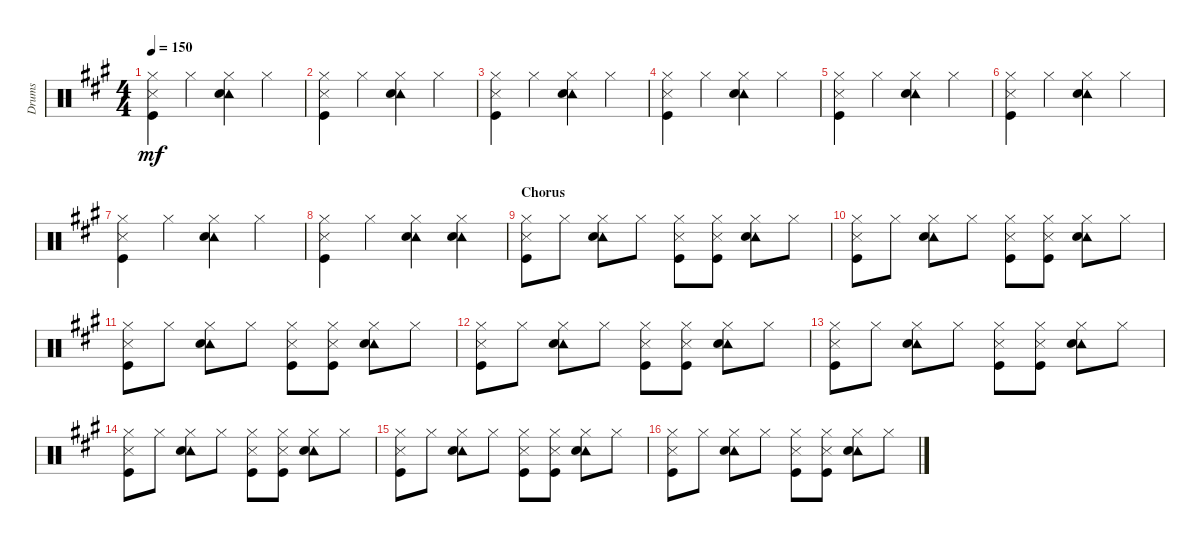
\track ("Drums" "Drums") {instrument percussion}
\staff {score}
\articulation defaults
\ts (4 4)
\tempo 150
\clef neutral
\ks a
("Hi-Hat (closed)" "Metronome (hit)" "Kick (hit)").4{dy mf} "Hi-Hat (closed)".4 ("Tambourine (hit)" "Hi-Hat (closed)" "Electric Snare (hit)").4 "Hi-Hat (closed)".4 |
("Hi-Hat (closed)" "Metronome (hit)" "Kick (hit)").4 "Hi-Hat (closed)".4 ("Tambourine (hit)" "Hi-Hat (closed)" "Electric Snare (hit)").4 "Hi-Hat (closed)".4 |
("Hi-Hat (closed)" "Metronome (hit)" "Kick (hit)").4 "Hi-Hat (closed)".4 ("Tambourine (hit)" "Hi-Hat (closed)" "Electric Snare (hit)").4 "Hi-Hat (closed)".4 |
("Hi-Hat (closed)" "Metronome (hit)" "Kick (hit)").4 "Hi-Hat (closed)".4 ("Tambourine (hit)" "Hi-Hat (closed)" "Electric Snare (hit)").4 "Hi-Hat (closed)".4 |
("Hi-Hat (closed)" "Metronome (hit)" "Kick (hit)").4 "Hi-Hat (closed)".4 ("Tambourine (hit)" "Hi-Hat (closed)" "Electric Snare (hit)").4 "Hi-Hat (closed)".4 |
("Hi-Hat (closed)" "Metronome (hit)" "Kick (hit)").4 "Hi-Hat (closed)".4 ("Tambourine (hit)" "Hi-Hat (closed)" "Electric Snare (hit)").4 "Hi-Hat (closed)".4 |
("Hi-Hat (closed)" "Metronome (hit)" "Kick (hit)").4 "Hi-Hat (closed)".4 ("Tambourine (hit)" "Hi-Hat (closed)" "Electric Snare (hit)").4 "Hi-Hat (closed)".4 |
("Hi-Hat (closed)" "Metronome (hit)" "Kick (hit)").4 "Hi-Hat (closed)".4 ("Tambourine (hit)" "Hi-Hat (closed)" "Electric Snare (hit)").4 ("Tambourine (hit)" "Hi-Hat (closed)" "Electric Snare (hit)").4 |
\section ("" "Chorus")
("Hi-Hat (closed)" "Metronome (hit)" "Kick (hit)").8 "Hi-Hat (closed)".8 ("Tambourine (hit)" "Hi-Hat (closed)" "Electric Snare (hit)").8 "Hi-Hat (closed)".8 ("Hi-Hat (closed)" "Metronome (hit)" "Kick (hit)").8 ("Hi-Hat (closed)" "Metronome (hit)" "Kick (hit)").8 ("Tambourine (hit)" "Hi-Hat (closed)" "Electric Snare (hit)").8 "Hi-Hat (closed)".8 |
("Hi-Hat (closed)" "Metronome (hit)" "Kick (hit)").8 "Hi-Hat (closed)".8 ("Tambourine (hit)" "Hi-Hat (closed)" "Electric Snare (hit)").8 "Hi-Hat (closed)".8 ("Hi-Hat (closed)" "Metronome (hit)" "Kick (hit)").8 ("Hi-Hat (closed)" "Metronome (hit)" "Kick (hit)").8 ("Tambourine (hit)" "Hi-Hat (closed)" "Electric Snare (hit)").8 "Hi-Hat (closed)".8 |
("Hi-Hat (closed)" "Metronome (hit)" "Kick (hit)").8 "Hi-Hat (closed)".8 ("Tambourine (hit)" "Hi-Hat (closed)" "Electric Snare (hit)").8 "Hi-Hat (closed)".8 ("Hi-Hat (closed)" "Metronome (hit)" "Kick (hit)").8 ("Hi-Hat (closed)" "Metronome (hit)" "Kick (hit)").8 ("Tambourine (hit)" "Hi-Hat (closed)" "Electric Snare (hit)").8 "Hi-Hat (closed)".8 |
("Hi-Hat (closed)" "Metronome (hit)" "Kick (hit)").8 "Hi-Hat (closed)".8 ("Tambourine (hit)" "Hi-Hat (closed)" "Electric Snare (hit)").8 "Hi-Hat (closed)".8 ("Hi-Hat (closed)" "Metronome (hit)" "Kick (hit)").8 ("Hi-Hat (closed)" "Metronome (hit)" "Kick (hit)").8 ("Tambourine (hit)" "Hi-Hat (closed)" "Electric Snare (hit)").8 "Hi-Hat (closed)".8 |
("Hi-Hat (closed)" "Metronome (hit)" "Kick (hit)").8 "Hi-Hat (closed)".8 ("Tambourine (hit)" "Hi-Hat (closed)" "Electric Snare (hit)").8 "Hi-Hat (closed)".8 ("Hi-Hat (closed)" "Metronome (hit)" "Kick (hit)").8 ("Hi-Hat (closed)" "Metronome (hit)" "Kick (hit)").8 ("Tambourine (hit)" "Hi-Hat (closed)" "Electric Snare (hit)").8 "Hi-Hat (closed)".8 |
("Hi-Hat (closed)" "Metronome (hit)" "Kick (hit)").8 "Hi-Hat (closed)".8 ("Tambourine (hit)" "Hi-Hat (closed)" "Electric Snare (hit)").8 "Hi-Hat (closed)".8 ("Hi-Hat (closed)" "Metronome (hit)" "Kick (hit)").8 ("Hi-Hat (closed)" "Metronome (hit)" "Kick (hit)").8 ("Tambourine (hit)" "Hi-Hat (closed)" "Electric Snare (hit)").8 "Hi-Hat (closed)".8 |
("Hi-Hat (closed)" "Metronome (hit)" "Kick (hit)").8 "Hi-Hat (closed)".8 ("Tambourine (hit)" "Hi-Hat (closed)" "Electric Snare (hit)").8 "Hi-Hat (closed)".8 ("Hi-Hat (closed)" "Metronome (hit)" "Kick (hit)").8 ("Hi-Hat (closed)" "Metronome (hit)" "Kick (hit)").8 ("Tambourine (hit)" "Hi-Hat (closed)" "Electric Snare (hit)").8 "Hi-Hat (closed)".8 |
("Hi-Hat (closed)" "Metronome (hit)" "Kick (hit)").8 "Hi-Hat (closed)".8 ("Tambourine (hit)" "Hi-Hat (closed)" "Electric Snare (hit)").8 "Hi-Hat (closed)".8 ("Hi-Hat (closed)" "Metronome (hit)" "Kick (hit)").8 ("Hi-Hat (closed)" "Metronome (hit)" "Kick (hit)").8 ("Tambourine (hit)" "Hi-Hat (closed)" "Electric Snare (hit)").8 "Hi-Hat (closed)".8
